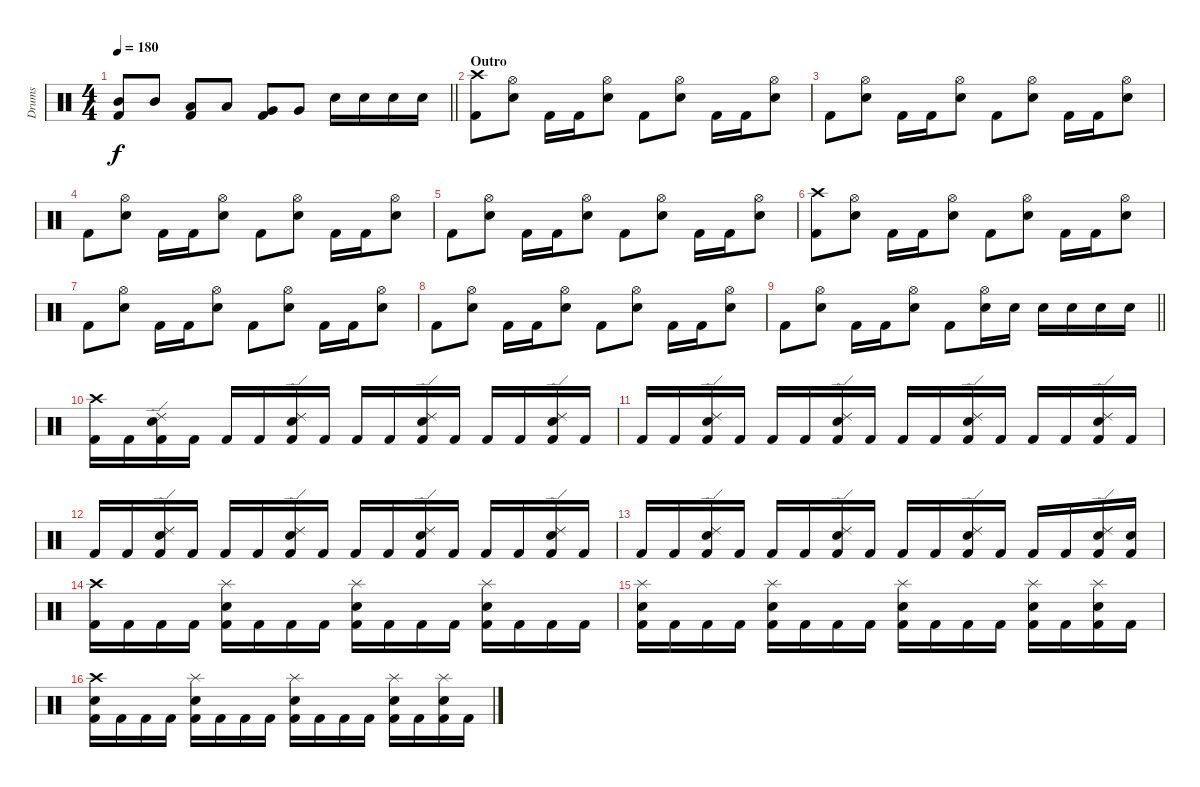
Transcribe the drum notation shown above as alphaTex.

\track ("Drums" "Drums") {instrument percussion}
\staff {score}
\articulation defaults
\ts (4 4)
\tempo 180
\clef neutral
\barLineRight lightlight
\ks c
("Mid Tom (hit)" "Kick (hit) 2").8{dy f} "Mid Tom (hit)".8 ("Low Tom (hit)" "Kick (hit) 2").8 "Low Tom (hit)".8 ("Very Low Tom (hit)" "Kick (hit) 2").8 "Very Low Tom (hit)".8 "Electric Snare (hit)".16 "Electric Snare (hit)".16 "Electric Snare (hit)".16 "Electric Snare (hit)".16 |
\section ("" "Outro")
("Crash high (hit)" "Kick (hit) 2").8 ("Hi-Hat (open)" "Electric Snare (hit)").8 "Kick (hit) 2".16 "Kick (hit) 2".16 ("Hi-Hat (open)" "Electric Snare (hit)").8 "Kick (hit) 2".8 ("Hi-Hat (open)" "Electric Snare (hit)").8 "Kick (hit) 2".16 "Kick (hit) 2".16 ("Hi-Hat (open)" "Electric Snare (hit)").8 |
"Kick (hit) 2".8 ("Hi-Hat (open)" "Electric Snare (hit)").8 "Kick (hit) 2".16 "Kick (hit) 2".16 ("Hi-Hat (open)" "Electric Snare (hit)").8 "Kick (hit) 2".8 ("Hi-Hat (open)" "Electric Snare (hit)").8 "Kick (hit) 2".16 "Kick (hit) 2".16 ("Hi-Hat (open)" "Electric Snare (hit)").8 |
"Kick (hit) 2".8 ("Hi-Hat (open)" "Electric Snare (hit)").8 "Kick (hit) 2".16 "Kick (hit) 2".16 ("Hi-Hat (open)" "Electric Snare (hit)").8 "Kick (hit) 2".8 ("Hi-Hat (open)" "Electric Snare (hit)").8 "Kick (hit) 2".16 "Kick (hit) 2".16 ("Hi-Hat (open)" "Electric Snare (hit)").8 |
"Kick (hit) 2".8 ("Hi-Hat (open)" "Electric Snare (hit)").8 "Kick (hit) 2".16 "Kick (hit) 2".16 ("Hi-Hat (open)" "Electric Snare (hit)").8 "Kick (hit) 2".8 ("Hi-Hat (open)" "Electric Snare (hit)").8 "Kick (hit) 2".16 "Kick (hit) 2".16 ("Hi-Hat (open)" "Electric Snare (hit)").8 |
("Crash high (hit)" "Kick (hit) 2").8 ("Hi-Hat (open)" "Electric Snare (hit)").8 "Kick (hit) 2".16 "Kick (hit) 2".16 ("Hi-Hat (open)" "Electric Snare (hit)").8 "Kick (hit) 2".8 ("Hi-Hat (open)" "Electric Snare (hit)").8 "Kick (hit) 2".16 "Kick (hit) 2".16 ("Hi-Hat (open)" "Electric Snare (hit)").8 |
"Kick (hit) 2".8 ("Hi-Hat (open)" "Electric Snare (hit)").8 "Kick (hit) 2".16 "Kick (hit) 2".16 ("Hi-Hat (open)" "Electric Snare (hit)").8 "Kick (hit) 2".8 ("Hi-Hat (open)" "Electric Snare (hit)").8 "Kick (hit) 2".16 "Kick (hit) 2".16 ("Hi-Hat (open)" "Electric Snare (hit)").8 |
"Kick (hit) 2".8 ("Hi-Hat (open)" "Electric Snare (hit)").8 "Kick (hit) 2".16 "Kick (hit) 2".16 ("Hi-Hat (open)" "Electric Snare (hit)").8 "Kick (hit) 2".8 ("Hi-Hat (open)" "Electric Snare (hit)").8 "Kick (hit) 2".16 "Kick (hit) 2".16 ("Hi-Hat (open)" "Electric Snare (hit)").8 |
\barLineRight lightlight "Kick (hit) 2".8
("Hi-Hat (open)" "Electric Snare (hit)").8 "Kick (hit) 2".16 "Kick (hit) 2".16 ("Hi-Hat (open)" "Electric Snare (hit)").8 "Kick (hit) 2".8 ("Hi-Hat (open)" "Electric Snare (hit)").16 "Electric Snare (hit)".16 "Electric Snare (hit)".16 "Electric Snare (hit)".16 "Electric Snare (hit)".16 "Electric Snare (hit)".16 |
("Crash high (hit)" "Kick (hit) 2").16 "Kick (hit) 2".16 ("Ride (edge) 2" "Electric Snare (hit)" "Kick (hit) 2").16 "Kick (hit) 2".16 "Kick (hit) 2".16 "Kick (hit) 2".16 ("Ride (edge) 2" "Electric Snare (hit)" "Kick (hit) 2").16 "Kick (hit) 2".16 "Kick (hit) 2".16 "Kick (hit) 2".16 ("Ride (edge) 2" "Electric Snare (hit)" "Kick (hit) 2").16 "Kick (hit) 2".16 "Kick (hit) 2".16 "Kick (hit) 2".16 ("Ride (edge) 2" "Electric Snare (hit)" "Kick (hit) 2").16 "Kick (hit) 2".16 |
"Kick (hit) 2".16 "Kick (hit) 2".16 ("Ride (edge) 2" "Electric Snare (hit)" "Kick (hit) 2").16 "Kick (hit) 2".16 "Kick (hit) 2".16 "Kick (hit) 2".16 ("Ride (edge) 2" "Electric Snare (hit)" "Kick (hit) 2").16 "Kick (hit) 2".16 "Kick (hit) 2".16 "Kick (hit) 2".16 ("Ride (edge) 2" "Electric Snare (hit)" "Kick (hit) 2").16 "Kick (hit) 2".16 "Kick (hit) 2".16 "Kick (hit) 2".16 ("Ride (edge) 2" "Electric Snare (hit)" "Kick (hit) 2").16 "Kick (hit) 2".16 |
"Kick (hit) 2".16 "Kick (hit) 2".16 ("Ride (edge) 2" "Electric Snare (hit)" "Kick (hit) 2").16 "Kick (hit) 2".16 "Kick (hit) 2".16 "Kick (hit) 2".16 ("Ride (edge) 2" "Electric Snare (hit)" "Kick (hit) 2").16 "Kick (hit) 2".16 "Kick (hit) 2".16 "Kick (hit) 2".16 ("Ride (edge) 2" "Electric Snare (hit)" "Kick (hit) 2").16 "Kick (hit) 2".16 "Kick (hit) 2".16 "Kick (hit) 2".16 ("Ride (edge) 2" "Electric Snare (hit)" "Kick (hit) 2").16 "Kick (hit) 2".16 |
"Kick (hit) 2".16 "Kick (hit) 2".16 ("Ride (edge) 2" "Electric Snare (hit)" "Kick (hit) 2").16 "Kick (hit) 2".16 "Kick (hit) 2".16 "Kick (hit) 2".16 ("Ride (edge) 2" "Electric Snare (hit)" "Kick (hit) 2").16 "Kick (hit) 2".16 "Kick (hit) 2".16 "Kick (hit) 2".16 ("Ride (edge) 2" "Electric Snare (hit)" "Kick (hit) 2").16 "Kick (hit) 2".16 "Kick (hit) 2".16 "Kick (hit) 2".16 ("Ride (edge) 2" "Electric Snare (hit)" "Kick (hit) 2").16 ("Electric Snare (hit)" "Kick (hit) 2").16 |
("Crash high (hit)" "Kick (hit) 2").16 "Kick (hit) 2".16 "Kick (hit) 2".16 "Kick (hit) 2".16 ("Splash (hit)" "Electric Snare (hit)" "Kick (hit) 2").16 "Kick (hit) 2".16 "Kick (hit) 2".16 "Kick (hit) 2".16 ("Splash (hit)" "Electric Snare (hit)" "Kick (hit) 2").16 "Kick (hit) 2".16 "Kick (hit) 2".16 "Kick (hit) 2".16 ("Splash (hit)" "Electric Snare (hit)" "Kick (hit) 2").16 "Kick (hit) 2".16 "Kick (hit) 2".16 "Kick (hit) 2".16 |
("Splash (hit)" "Electric Snare (hit)" "Kick (hit) 2").16 "Kick (hit) 2".16 "Kick (hit) 2".16 "Kick (hit) 2".16 ("Splash (hit)" "Electric Snare (hit)" "Kick (hit) 2").16 "Kick (hit) 2".16 "Kick (hit) 2".16 "Kick (hit) 2".16 ("Splash (hit)" "Electric Snare (hit)" "Kick (hit) 2").16 "Kick (hit) 2".16 "Kick (hit) 2".16 "Kick (hit) 2".16 ("Splash (hit)" "Electric Snare (hit)" "Kick (hit) 2").16 "Kick (hit) 2".16 ("Splash (hit)" "Electric Snare (hit)" "Kick (hit) 2").16 "Kick (hit) 2".16 |
("Crash high (hit)" "Electric Snare (hit)" "Kick (hit) 2").16 "Kick (hit) 2".16 "Kick (hit) 2".16 "Kick (hit) 2".16 ("Splash (hit)" "Electric Snare (hit)" "Kick (hit) 2").16 "Kick (hit) 2".16 "Kick (hit) 2".16 "Kick (hit) 2".16 ("Splash (hit)" "Electric Snare (hit)" "Kick (hit) 2").16 "Kick (hit) 2".16 "Kick (hit) 2".16 "Kick (hit) 2".16 ("Splash (hit)" "Electric Snare (hit)" "Kick (hit) 2").16 "Kick (hit) 2".16 ("Splash (hit)" "Electric Snare (hit)" "Kick (hit) 2").16 "Kick (hit) 2".16
